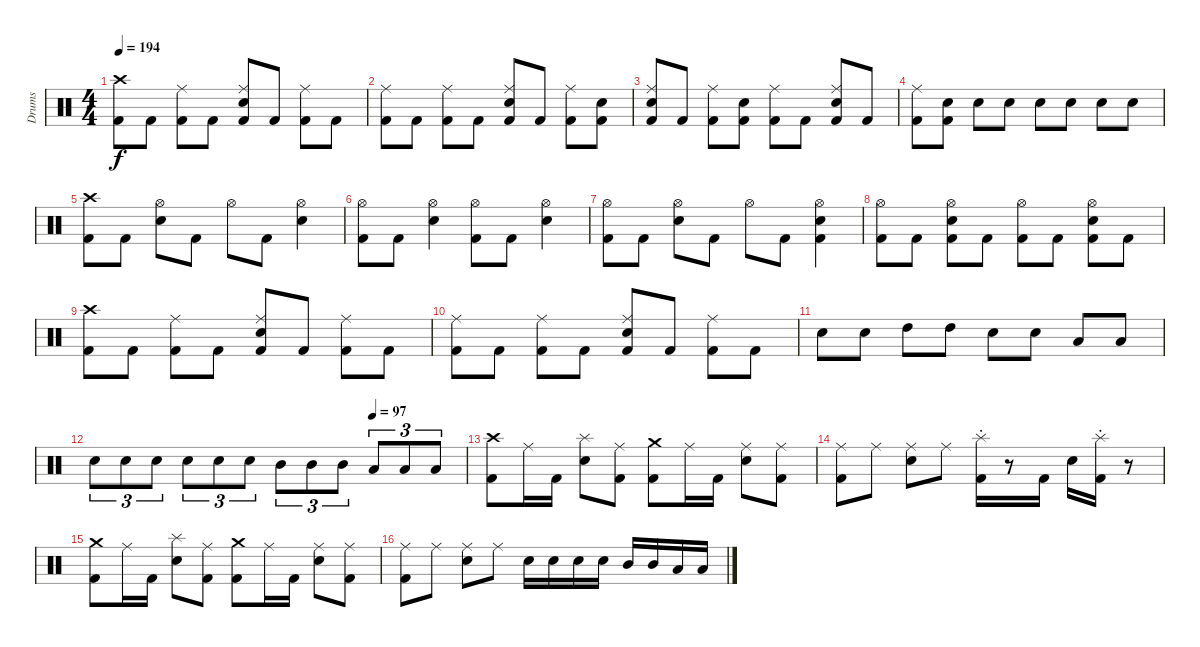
\track ("Drums" "Drums") {instrument percussion}
\staff {score}
\articulation defaults
\ts (4 4)
\tempo 194
\clef neutral
\ks c
("Crash high (hit)" "Kick (hit) 2").8{dy f} "Kick (hit) 2".8 ("Ride (middle)" "Kick (hit) 2").8 "Kick (hit) 2".8 ("Ride (middle)" "Electric Snare (hit)" "Kick (hit) 2").8 "Kick (hit) 2".8 ("Ride (middle)" "Kick (hit) 2").8 "Kick (hit) 2".8 |
("Ride (middle)" "Kick (hit) 2").8 "Kick (hit) 2".8 ("Ride (middle)" "Kick (hit) 2").8 "Kick (hit) 2".8 ("Ride (middle)" "Electric Snare (hit)" "Kick (hit) 2").8 "Kick (hit) 2".8 ("Ride (middle)" "Kick (hit) 2").8 ("Electric Snare (hit)" "Kick (hit) 2").8 |
("Ride (middle)" "Electric Snare (hit)" "Kick (hit) 2").8 "Kick (hit) 2".8 ("Ride (middle)" "Kick (hit) 2").8 ("Electric Snare (hit)" "Kick (hit) 2").8 ("Ride (middle)" "Kick (hit) 2").8 "Kick (hit) 2".8 ("Ride (middle)" "Electric Snare (hit)" "Kick (hit) 2").8 "Kick (hit) 2".8 |
("Ride (middle)" "Kick (hit) 2").8 ("Electric Snare (hit)" "Kick (hit) 2").8 "Electric Snare (hit)".8 "Electric Snare (hit)".8 "Electric Snare (hit)".8 "Electric Snare (hit)".8 "Electric Snare (hit)".8 "Electric Snare (hit)".8 |
("Crash high (hit)" "Kick (hit) 2").8 "Kick (hit) 2".8 ("Hi-Hat (open)" "Electric Snare (hit)").8 "Kick (hit) 2".8 "Hi-Hat (open)".8 "Kick (hit) 2".8 ("Hi-Hat (open)" "Electric Snare (hit)").4 |
("Hi-Hat (open)" "Kick (hit) 2").8 "Kick (hit) 2".8 ("Hi-Hat (open)" "Electric Snare (hit)").4 ("Hi-Hat (open)" "Kick (hit) 2").8 "Kick (hit) 2".8 ("Hi-Hat (open)" "Electric Snare (hit)").4 |
("Hi-Hat (open)" "Kick (hit) 2").8 "Kick (hit) 2".8 ("Hi-Hat (open)" "Electric Snare (hit)").8 "Kick (hit) 2".8 "Hi-Hat (open)".8 "Kick (hit) 2".8 ("Hi-Hat (open)" "Electric Snare (hit)" "Kick (hit) 2").4 |
("Hi-Hat (open)" "Kick (hit) 2").8 "Kick (hit) 2".8 ("Hi-Hat (open)" "Electric Snare (hit)" "Kick (hit) 2").8 "Kick (hit) 2".8 ("Hi-Hat (open)" "Kick (hit) 2").8 "Kick (hit) 2".8 ("Hi-Hat (open)" "Electric Snare (hit)" "Kick (hit) 2").8 "Kick (hit) 2".8 |
("Crash high (hit)" "Kick (hit) 2").8 "Kick (hit) 2".8 ("Ride (middle)" "Kick (hit) 2").8 "Kick (hit) 2".8 ("Ride (middle)" "Electric Snare (hit)" "Kick (hit) 2").8 "Kick (hit) 2".8 ("Ride (middle)" "Kick (hit) 2").8 "Kick (hit) 2".8 |
("Ride (middle)" "Kick (hit) 2").8 "Kick (hit) 2".8 ("Ride (middle)" "Kick (hit) 2").8 "Kick (hit) 2".8 ("Ride (middle)" "Electric Snare (hit)" "Kick (hit) 2").8 "Kick (hit) 2".8 ("Ride (middle)" "Kick (hit) 2").8 "Kick (hit) 2".8 |
"Electric Snare (hit)".8 "Electric Snare (hit)".8 "High Tom (hit)".8 "High Tom (hit)".8 "Electric Snare (hit)".8 "Electric Snare (hit)".8 "Low Tom (hit)".8 "Low Tom (hit)".8 |
\tempo (97 0.75)
"Electric Snare (hit)".8{tu (3 2)} "Electric Snare (hit)".8{tu (3 2)} "Electric Snare (hit)".8{tu (3 2)} "Electric Snare (hit)".8{tu (3 2)} "Electric Snare (hit)".8{tu (3 2)} "Electric Snare (hit)".8{tu (3 2)} "Mid Tom (hit)".8{tu (3 2)} "Mid Tom (hit)".8{tu (3 2)} "Mid Tom (hit)".8{tu (3 2)} "Low Tom (hit)".8{tu (3 2)} "Low Tom (hit)".8{tu (3 2)} "Low Tom (hit)".8{tu (3 2)} |
("Crash high (hit)" "Kick (hit) 2").8 "Ride (middle)".16 "Kick (hit) 2".16 ("Splash (hit)" "Electric Snare (hit)").8 ("Ride (middle)" "Kick (hit) 2").8 ("Crash medium (hit)" "Kick (hit) 2").8 "Ride (middle)".16 "Kick (hit) 2".16 ("Ride (middle)" "Electric Snare (hit)").8 ("Ride (middle)" "Kick (hit) 2").8 |
("Ride (middle)" "Kick (hit) 2").8 "Ride (middle)".8 ("Ride (middle)" "Electric Snare (hit)").8 "Ride (middle)".8 ("Splash (hit)"{st} "Kick (hit) 2").16 r.8 "Kick (hit) 2".16 "Electric Snare (hit)".16 ("Splash (hit)"{st} "Kick (hit) 2").16 r.8 |
("Crash medium (hit)" "Kick (hit) 2").8 "Ride (middle)".16 "Kick (hit) 2".16 ("Splash (hit)" "Electric Snare (hit)").8 ("Ride (middle)" "Kick (hit) 2").8 ("Crash medium (hit)" "Kick (hit) 2").8 "Ride (middle)".16 "Kick (hit) 2".16 ("Ride (middle)" "Electric Snare (hit)").8 ("Ride (middle)" "Kick (hit) 2").8 |
("Ride (middle)" "Kick (hit) 2").8 "Ride (middle)".8 ("Ride (middle)" "Electric Snare (hit)").8 "Ride (middle)".8 "Electric Snare (hit)".16 "Electric Snare (hit)".16 "Electric Snare (hit)".16 "Electric Snare (hit)".16 "Mid Tom (hit)".16 "Mid Tom (hit)".16 "Low Tom (hit)".16 "Low Tom (hit)".16
